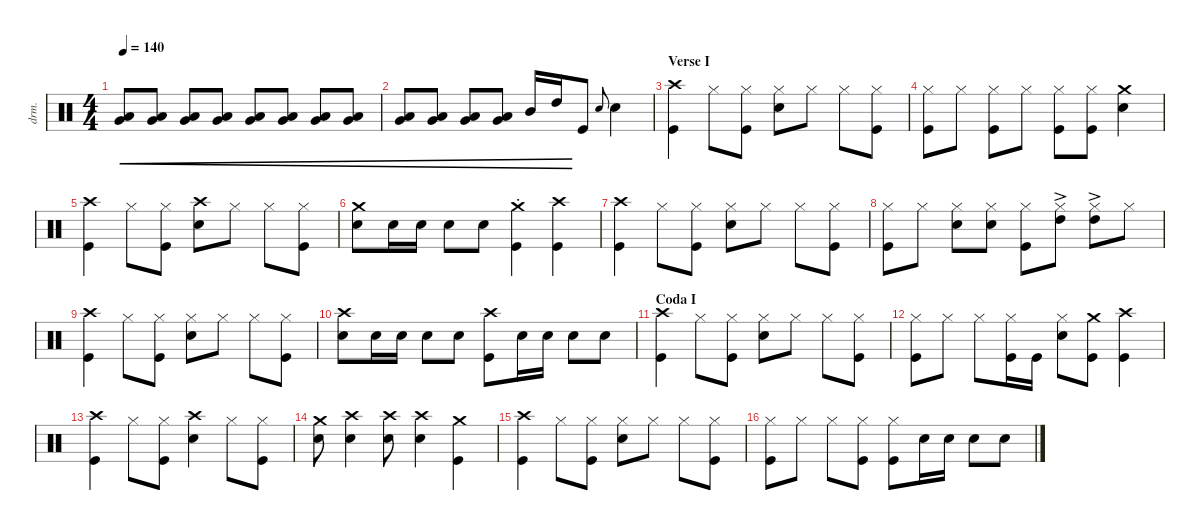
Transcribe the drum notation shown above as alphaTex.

\defaultSystemsLayout 4
\hideDynamics
\bracketExtendMode nobrackets
\otherSystemsTrackNameOrientation horizontal
\track ("Drums" "drm.") {multiBarRest instrument percussion}
\staff
\articulation defaults
\ts (4 4)
\tempo 140
\clef neutral
\ks c
("Very Low Tom (hit)" "Low Tom (hit)").8{cre dy ff} ("Very Low Tom (hit)" "Low Tom (hit)").8{cre} ("Very Low Tom (hit)" "Low Tom (hit)").8{cre} ("Very Low Tom (hit)" "Low Tom (hit)").8{cre} ("Very Low Tom (hit)" "Low Tom (hit)").8{cre} ("Very Low Tom (hit)" "Low Tom (hit)").8{cre} ("Very Low Tom (hit)" "Low Tom (hit)").8{cre} ("Very Low Tom (hit)" "Low Tom (hit)").8{cre} |
("Very Low Tom (hit)" "Low Tom (hit)").8{cre} ("Very Low Tom (hit)" "Low Tom (hit)").8{cre} ("Very Low Tom (hit)" "Low Tom (hit)").8{cre} ("Very Low Tom (hit)" "Low Tom (hit)").8{cre} "Mid Tom (hit)".16{cre} "High Tom (hit)".16{cre} "Kick (hit)".8{dy f} "Snare (hit) 2".8{gr onbeat} "Snare (hit) 2".4 |
\section ("" "Verse I")
("Crash high (hit)" "Kick (hit)").4 "Hi-Hat (closed)".8 ("Hi-Hat (closed)" "Kick (hit)").8 ("Hi-Hat (closed)" "Snare (hit) 2").8 "Hi-Hat (closed)".8 "Hi-Hat (closed)".8 ("Hi-Hat (closed)" "Kick (hit)").8 |
("Hi-Hat (closed)" "Kick (hit)").8 "Hi-Hat (closed)".8 ("Hi-Hat (closed)" "Kick (hit)").8 "Hi-Hat (closed)".8 ("Hi-Hat (closed)" "Kick (hit)").8 ("Kick (hit)" "Hi-Hat (closed)").8 ("Snare (hit) 2" "Crash medium (hit)").4 |
("Crash high (hit)" "Kick (hit)").4 "Hi-Hat (closed)".8 ("Hi-Hat (closed)" "Kick (hit)").8 ("Snare (hit) 2" "Crash high (hit)").8 "Hi-Hat (closed)".8 "Hi-Hat (closed)".8 ("Hi-Hat (closed)" "Kick (hit)").8 |
("Snare (hit) 2" "Crash medium (hit)").8 "Snare (hit) 2".16{dy p} "Snare (hit) 2".16 "Snare (hit) 2".8{dy mf} "Snare (hit) 2".8{dy f} ("Crash medium (hit)"{st} "Kick (hit)").4 ("Crash high (hit)" "Kick (hit)").4 |
("Crash high (hit)" "Kick (hit)").4 "Hi-Hat (closed)".8 ("Hi-Hat (closed)" "Kick (hit)").8 ("Hi-Hat (closed)" "Snare (hit) 2").8 "Hi-Hat (closed)".8 "Hi-Hat (closed)".8 ("Hi-Hat (closed)" "Kick (hit)").8 |
("Hi-Hat (closed)" "Kick (hit)").8 "Hi-Hat (closed)".8 ("Hi-Hat (closed)" "Snare (hit) 2").8 ("Hi-Hat (closed)" "Snare (hit) 2").8 ("Hi-Hat (closed)" "Kick (hit)").8 ("Hi-Hat (closed)" "High Tom (hit)"{ac}).8 ("Hi-Hat (closed)" "High Tom (hit)"{ac}).8 "Hi-Hat (closed)".8 |
("Crash high (hit)" "Kick (hit)").4 "Hi-Hat (closed)".8 ("Hi-Hat (closed)" "Kick (hit)").8 ("Hi-Hat (closed)" "Snare (hit) 2").8 "Hi-Hat (closed)".8 "Hi-Hat (closed)".8 ("Hi-Hat (closed)" "Kick (hit)").8 |
("Crash high (hit)" "Snare (hit) 2").8 "Snare (hit) 2".16{dy p} "Snare (hit) 2".16 "Snare (hit) 2".8{dy mf} "Snare (hit) 2".8 ("Crash high (hit)" "Kick (hit)").8{dy f} "Snare (hit) 2".16{dy p} "Snare (hit) 2".16 "Snare (hit) 2".8{dy mf} "Snare (hit) 2".8 |
\section ("" "Coda I")
("Crash high (hit)" "Kick (hit)").4{dy f} "Hi-Hat (closed)".8 ("Hi-Hat (closed)" "Kick (hit)").8 ("Hi-Hat (closed)" "Snare (hit) 2").8 "Hi-Hat (closed)".8 "Hi-Hat (closed)".8 ("Hi-Hat (closed)" "Kick (hit)").8 |
("Kick (hit)" "Hi-Hat (closed)").8 "Hi-Hat (closed)".8 "Hi-Hat (closed)".8 ("Hi-Hat (closed)" "Kick (hit)").16 "Kick (hit)".16 ("Snare (hit) 2" "Hi-Hat (closed)").8 ("Crash medium (hit)" "Kick (hit)").8 ("Crash high (hit)" "Kick (hit)").4 |
("Crash high (hit)" "Kick (hit)").4 "Hi-Hat (closed)".8 ("Hi-Hat (closed)" "Kick (hit)").8 ("Snare (hit) 2" "Crash high (hit)").4 "Hi-Hat (closed)".8 ("Hi-Hat (closed)" "Kick (hit)").8 |
("Snare (hit) 2" "Crash medium (hit)").8 ("Snare (hit) 2" "Crash high (hit)").4 ("Snare (hit) 2" "Crash high (hit)").8 ("Snare (hit) 2" "Crash high (hit)").4 ("Crash medium (hit)" "Kick (hit)").4 |
("Crash high (hit)" "Kick (hit)").4 "Hi-Hat (closed)".8 ("Hi-Hat (closed)" "Kick (hit)").8 ("Hi-Hat (closed)" "Snare (hit) 2").8 "Hi-Hat (closed)".8 "Hi-Hat (closed)".8 ("Hi-Hat (closed)" "Kick (hit)").8 |
("Kick (hit)" "Hi-Hat (closed)").8 "Hi-Hat (closed)".8 "Hi-Hat (closed)".8 ("Hi-Hat (closed)" "Kick (hit)").8 ("Kick (hit)" "Hi-Hat (closed)").8 "Snare (hit) 2".16{dy mf} "Snare (hit) 2".16 "Snare (hit) 2".8 "Snare (hit) 2".8
